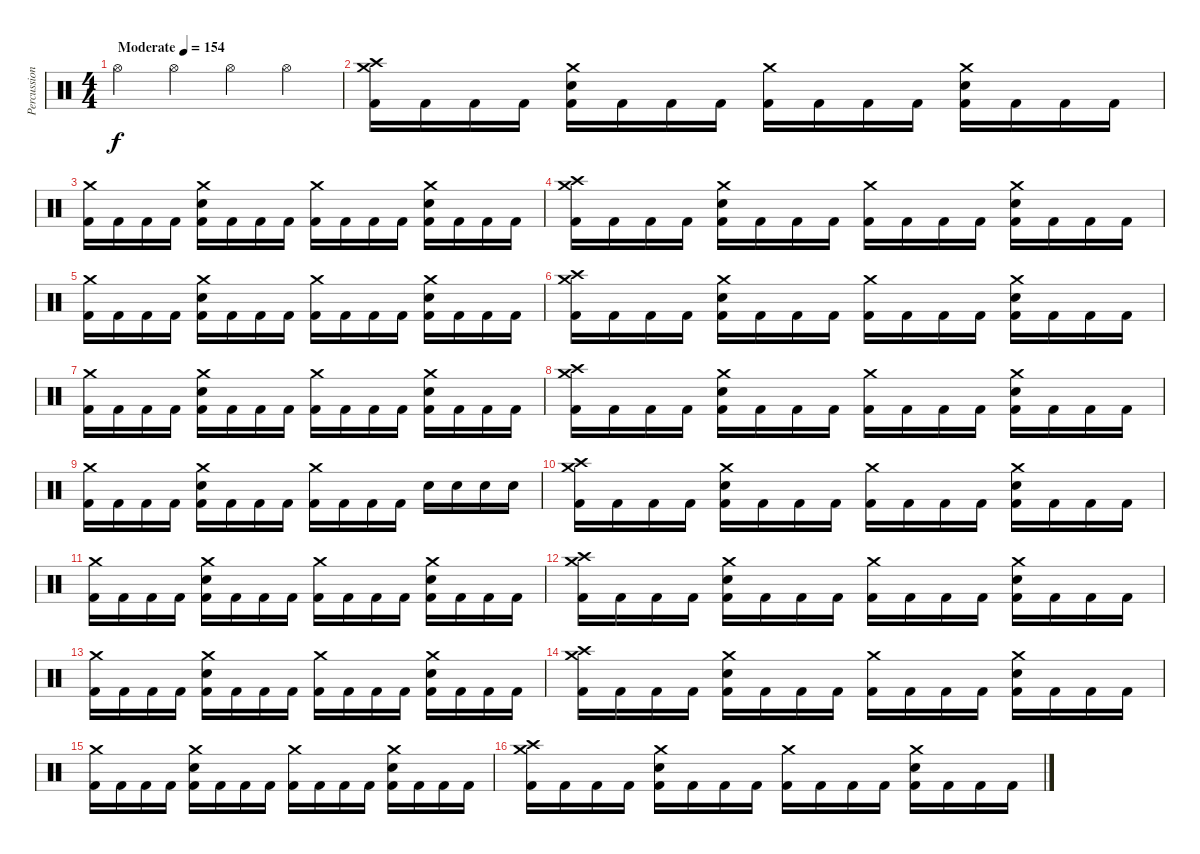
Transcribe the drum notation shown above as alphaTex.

\track ("Percussion" "Percussion") {instrument percussion bank 128}
\staff {score}
\articulation defaults
\ts (4 4)
\tempo (154 "Moderate")
\clef neutral
\ks c "Hi-Hat (open)".4{dy f} "Hi-Hat (open)".4 "Hi-Hat (open)".4 "Hi-Hat (open)".4
|
("Crash high (hit)" "Crash medium (hit)" "Kick (hit) 2").16 "Kick (hit) 2".16 "Kick (hit) 2".16 "Kick (hit) 2".16 ("Crash medium (hit)" "Snare (hit) 2" "Kick (hit) 2").16 "Kick (hit) 2".16 "Kick (hit) 2".16 "Kick (hit) 2".16 ("Crash medium (hit)" "Kick (hit) 2").16 "Kick (hit) 2".16 "Kick (hit) 2".16 "Kick (hit) 2".16 ("Crash medium (hit)" "Snare (hit) 2" "Kick (hit) 2").16 "Kick (hit) 2".16 "Kick (hit) 2".16 "Kick (hit) 2".16 |
("Crash medium (hit)" "Kick (hit) 2").16 "Kick (hit) 2".16 "Kick (hit) 2".16 "Kick (hit) 2".16 ("Crash medium (hit)" "Snare (hit) 2" "Kick (hit) 2").16 "Kick (hit) 2".16 "Kick (hit) 2".16 "Kick (hit) 2".16 ("Crash medium (hit)" "Kick (hit) 2").16 "Kick (hit) 2".16 "Kick (hit) 2".16 "Kick (hit) 2".16 ("Crash medium (hit)" "Snare (hit) 2" "Kick (hit) 2").16 "Kick (hit) 2".16 "Kick (hit) 2".16 "Kick (hit) 2".16 |
("Crash high (hit)" "Crash medium (hit)" "Kick (hit) 2").16 "Kick (hit) 2".16 "Kick (hit) 2".16 "Kick (hit) 2".16 ("Crash medium (hit)" "Snare (hit) 2" "Kick (hit) 2").16 "Kick (hit) 2".16 "Kick (hit) 2".16 "Kick (hit) 2".16 ("Crash medium (hit)" "Kick (hit) 2").16 "Kick (hit) 2".16 "Kick (hit) 2".16 "Kick (hit) 2".16 ("Crash medium (hit)" "Snare (hit) 2" "Kick (hit) 2").16 "Kick (hit) 2".16 "Kick (hit) 2".16 "Kick (hit) 2".16 |
("Crash medium (hit)" "Kick (hit) 2").16 "Kick (hit) 2".16 "Kick (hit) 2".16 "Kick (hit) 2".16 ("Crash medium (hit)" "Snare (hit) 2" "Kick (hit) 2").16 "Kick (hit) 2".16 "Kick (hit) 2".16 "Kick (hit) 2".16 ("Crash medium (hit)" "Kick (hit) 2").16 "Kick (hit) 2".16 "Kick (hit) 2".16 "Kick (hit) 2".16 ("Crash medium (hit)" "Snare (hit) 2" "Kick (hit) 2").16 "Kick (hit) 2".16 "Kick (hit) 2".16 "Kick (hit) 2".16 |
("Crash high (hit)" "Crash medium (hit)" "Kick (hit) 2").16 "Kick (hit) 2".16 "Kick (hit) 2".16 "Kick (hit) 2".16 ("Crash medium (hit)" "Snare (hit) 2" "Kick (hit) 2").16 "Kick (hit) 2".16 "Kick (hit) 2".16 "Kick (hit) 2".16 ("Crash medium (hit)" "Kick (hit) 2").16 "Kick (hit) 2".16 "Kick (hit) 2".16 "Kick (hit) 2".16 ("Crash medium (hit)" "Snare (hit) 2" "Kick (hit) 2").16 "Kick (hit) 2".16 "Kick (hit) 2".16 "Kick (hit) 2".16 |
("Crash medium (hit)" "Kick (hit) 2").16 "Kick (hit) 2".16 "Kick (hit) 2".16 "Kick (hit) 2".16 ("Crash medium (hit)" "Snare (hit) 2" "Kick (hit) 2").16 "Kick (hit) 2".16 "Kick (hit) 2".16 "Kick (hit) 2".16 ("Crash medium (hit)" "Kick (hit) 2").16 "Kick (hit) 2".16 "Kick (hit) 2".16 "Kick (hit) 2".16 ("Crash medium (hit)" "Snare (hit) 2" "Kick (hit) 2").16 "Kick (hit) 2".16 "Kick (hit) 2".16 "Kick (hit) 2".16 |
("Crash high (hit)" "Crash medium (hit)" "Kick (hit) 2").16 "Kick (hit) 2".16 "Kick (hit) 2".16 "Kick (hit) 2".16 ("Crash medium (hit)" "Snare (hit) 2" "Kick (hit) 2").16 "Kick (hit) 2".16 "Kick (hit) 2".16 "Kick (hit) 2".16 ("Crash medium (hit)" "Kick (hit) 2").16 "Kick (hit) 2".16 "Kick (hit) 2".16 "Kick (hit) 2".16 ("Crash medium (hit)" "Snare (hit) 2" "Kick (hit) 2").16 "Kick (hit) 2".16 "Kick (hit) 2".16 "Kick (hit) 2".16 |
("Crash medium (hit)" "Kick (hit) 2").16 "Kick (hit) 2".16 "Kick (hit) 2".16 "Kick (hit) 2".16 ("Crash medium (hit)" "Snare (hit) 2" "Kick (hit) 2").16 "Kick (hit) 2".16 "Kick (hit) 2".16 "Kick (hit) 2".16 ("Crash medium (hit)" "Kick (hit) 2").16 "Kick (hit) 2".16 "Kick (hit) 2".16 "Kick (hit) 2".16 "Snare (hit) 2".16 "Snare (hit) 2".16 "Snare (hit) 2".16 "Snare (hit) 2".16 |
("Crash high (hit)" "Crash medium (hit)" "Kick (hit) 2").16 "Kick (hit) 2".16 "Kick (hit) 2".16 "Kick (hit) 2".16 ("Crash medium (hit)" "Snare (hit) 2" "Kick (hit) 2").16 "Kick (hit) 2".16 "Kick (hit) 2".16 "Kick (hit) 2".16 ("Crash medium (hit)" "Kick (hit) 2").16 "Kick (hit) 2".16 "Kick (hit) 2".16 "Kick (hit) 2".16 ("Crash medium (hit)" "Snare (hit) 2" "Kick (hit) 2").16 "Kick (hit) 2".16 "Kick (hit) 2".16 "Kick (hit) 2".16 |
("Crash medium (hit)" "Kick (hit) 2").16 "Kick (hit) 2".16 "Kick (hit) 2".16 "Kick (hit) 2".16 ("Crash medium (hit)" "Snare (hit) 2" "Kick (hit) 2").16 "Kick (hit) 2".16 "Kick (hit) 2".16 "Kick (hit) 2".16 ("Crash medium (hit)" "Kick (hit) 2").16 "Kick (hit) 2".16 "Kick (hit) 2".16 "Kick (hit) 2".16 ("Crash medium (hit)" "Snare (hit) 2" "Kick (hit) 2").16 "Kick (hit) 2".16 "Kick (hit) 2".16 "Kick (hit) 2".16 |
("Crash high (hit)" "Crash medium (hit)" "Kick (hit) 2").16 "Kick (hit) 2".16 "Kick (hit) 2".16 "Kick (hit) 2".16 ("Crash medium (hit)" "Snare (hit) 2" "Kick (hit) 2").16 "Kick (hit) 2".16 "Kick (hit) 2".16 "Kick (hit) 2".16 ("Crash medium (hit)" "Kick (hit) 2").16 "Kick (hit) 2".16 "Kick (hit) 2".16 "Kick (hit) 2".16 ("Crash medium (hit)" "Snare (hit) 2" "Kick (hit) 2").16 "Kick (hit) 2".16 "Kick (hit) 2".16 "Kick (hit) 2".16 |
("Crash medium (hit)" "Kick (hit) 2").16 "Kick (hit) 2".16 "Kick (hit) 2".16 "Kick (hit) 2".16 ("Crash medium (hit)" "Snare (hit) 2" "Kick (hit) 2").16 "Kick (hit) 2".16 "Kick (hit) 2".16 "Kick (hit) 2".16 ("Crash medium (hit)" "Kick (hit) 2").16 "Kick (hit) 2".16 "Kick (hit) 2".16 "Kick (hit) 2".16 ("Crash medium (hit)" "Snare (hit) 2" "Kick (hit) 2").16 "Kick (hit) 2".16 "Kick (hit) 2".16 "Kick (hit) 2".16 |
("Crash high (hit)" "Crash medium (hit)" "Kick (hit) 2").16 "Kick (hit) 2".16 "Kick (hit) 2".16 "Kick (hit) 2".16 ("Crash medium (hit)" "Snare (hit) 2" "Kick (hit) 2").16 "Kick (hit) 2".16 "Kick (hit) 2".16 "Kick (hit) 2".16 ("Crash medium (hit)" "Kick (hit) 2").16 "Kick (hit) 2".16 "Kick (hit) 2".16 "Kick (hit) 2".16 ("Crash medium (hit)" "Snare (hit) 2" "Kick (hit) 2").16 "Kick (hit) 2".16 "Kick (hit) 2".16 "Kick (hit) 2".16 |
("Crash medium (hit)" "Kick (hit) 2").16 "Kick (hit) 2".16 "Kick (hit) 2".16 "Kick (hit) 2".16 ("Crash medium (hit)" "Snare (hit) 2" "Kick (hit) 2").16 "Kick (hit) 2".16 "Kick (hit) 2".16 "Kick (hit) 2".16 ("Crash medium (hit)" "Kick (hit) 2").16 "Kick (hit) 2".16 "Kick (hit) 2".16 "Kick (hit) 2".16 ("Crash medium (hit)" "Snare (hit) 2" "Kick (hit) 2").16 "Kick (hit) 2".16 "Kick (hit) 2".16 "Kick (hit) 2".16 |
("Crash high (hit)" "Crash medium (hit)" "Kick (hit) 2").16 "Kick (hit) 2".16 "Kick (hit) 2".16 "Kick (hit) 2".16 ("Crash medium (hit)" "Snare (hit) 2" "Kick (hit) 2").16 "Kick (hit) 2".16 "Kick (hit) 2".16 "Kick (hit) 2".16 ("Crash medium (hit)" "Kick (hit) 2").16 "Kick (hit) 2".16 "Kick (hit) 2".16 "Kick (hit) 2".16 ("Crash medium (hit)" "Snare (hit) 2" "Kick (hit) 2").16 "Kick (hit) 2".16 "Kick (hit) 2".16 "Kick (hit) 2".16
